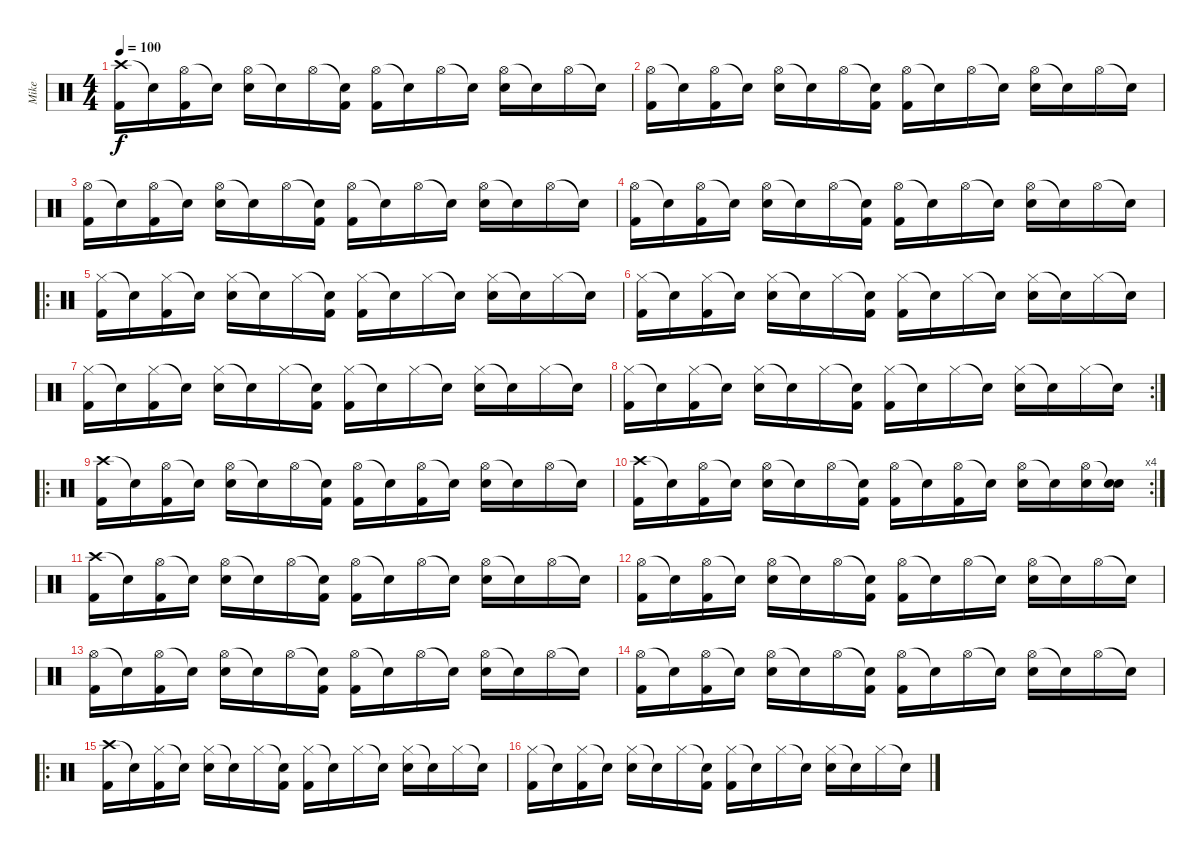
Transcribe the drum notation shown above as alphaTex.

\track ("Mike" "Mike") {instrument percussion}
\staff {score}
\articulation defaults
\ts (4 4)
\tempo 100
\clef neutral
\ks c
("Crash high (hit)" "Kick (hit) 2").16{dy f} "Snare (hit)"{t}.16 ("Hi-Hat (open)" "Kick (hit) 2").16 "Snare (hit)"{t}.16 ("Hi-Hat (open)" "Electric Snare (hit)").16 "Snare (hit)"{t}.16 "Hi-Hat (open)".16 ("Snare (hit)"{t} "Kick (hit) 2").16 ("Hi-Hat (open)" "Kick (hit) 2").16 "Snare (hit)"{t}.16 "Hi-Hat (open)".16 "Snare (hit)"{t}.16 ("Hi-Hat (open)" "Electric Snare (hit)").16 "Snare (hit)"{t}.16 "Hi-Hat (open)".16 "Snare (hit)"{t}.16 |
("Hi-Hat (open)" "Kick (hit) 2").16 "Snare (hit)"{t}.16 ("Hi-Hat (open)" "Kick (hit) 2").16 "Snare (hit)"{t}.16 ("Hi-Hat (open)" "Electric Snare (hit)").16 "Snare (hit)"{t}.16 "Hi-Hat (open)".16 ("Snare (hit)"{t} "Kick (hit) 2").16 ("Hi-Hat (open)" "Kick (hit) 2").16 "Snare (hit)"{t}.16 "Hi-Hat (open)".16 "Snare (hit)"{t}.16 ("Hi-Hat (open)" "Electric Snare (hit)").16 "Snare (hit)"{t}.16 "Hi-Hat (open)".16 "Snare (hit)"{t}.16 |
("Hi-Hat (open)" "Kick (hit) 2").16 "Snare (hit)"{t}.16 ("Hi-Hat (open)" "Kick (hit) 2").16 "Snare (hit)"{t}.16 ("Hi-Hat (open)" "Electric Snare (hit)").16 "Snare (hit)"{t}.16 "Hi-Hat (open)".16 ("Snare (hit)"{t} "Kick (hit) 2").16 ("Hi-Hat (open)" "Kick (hit) 2").16 "Snare (hit)"{t}.16 "Hi-Hat (open)".16 "Snare (hit)"{t}.16 ("Hi-Hat (open)" "Electric Snare (hit)").16 "Snare (hit)"{t}.16 "Hi-Hat (open)".16 "Snare (hit)"{t}.16 |
("Hi-Hat (open)" "Kick (hit) 2").16 "Snare (hit)"{t}.16 ("Hi-Hat (open)" "Kick (hit) 2").16 "Snare (hit)"{t}.16 ("Hi-Hat (open)" "Electric Snare (hit)").16 "Snare (hit)"{t}.16 "Hi-Hat (open)".16 ("Snare (hit)"{t} "Kick (hit) 2").16 ("Hi-Hat (open)" "Kick (hit) 2").16 "Snare (hit)"{t}.16 "Hi-Hat (open)".16 "Snare (hit)"{t}.16 ("Hi-Hat (open)" "Electric Snare (hit)").16 "Snare (hit)"{t}.16 "Hi-Hat (open)".16 "Snare (hit)"{t}.16 |
\ro
("Hi-Hat (closed)" "Kick (hit) 2").16 "Snare (hit)"{t}.16 ("Hi-Hat (closed)" "Kick (hit) 2").16 "Snare (hit)"{t}.16 ("Hi-Hat (closed)" "Electric Snare (hit)").16 "Snare (hit)"{t}.16 "Hi-Hat (closed)".16 ("Snare (hit)"{t} "Kick (hit) 2").16 ("Hi-Hat (closed)" "Kick (hit) 2").16 "Snare (hit)"{t}.16 "Hi-Hat (closed)".16 "Snare (hit)"{t}.16 ("Hi-Hat (closed)" "Electric Snare (hit)").16 "Snare (hit)"{t}.16 "Hi-Hat (closed)".16 "Snare (hit)"{t}.16 |
("Hi-Hat (closed)" "Kick (hit) 2").16 "Snare (hit)"{t}.16 ("Hi-Hat (closed)" "Kick (hit) 2").16 "Snare (hit)"{t}.16 ("Hi-Hat (closed)" "Electric Snare (hit)").16 "Snare (hit)"{t}.16 "Hi-Hat (closed)".16 ("Snare (hit)"{t} "Kick (hit) 2").16 ("Hi-Hat (closed)" "Kick (hit) 2").16 "Snare (hit)"{t}.16 "Hi-Hat (closed)".16 "Snare (hit)"{t}.16 ("Hi-Hat (closed)" "Electric Snare (hit)").16 "Snare (hit)"{t}.16 "Hi-Hat (closed)".16 "Snare (hit)"{t}.16 |
("Hi-Hat (closed)" "Kick (hit) 2").16 "Snare (hit)"{t}.16 ("Hi-Hat (closed)" "Kick (hit) 2").16 "Snare (hit)"{t}.16 ("Hi-Hat (closed)" "Electric Snare (hit)").16 "Snare (hit)"{t}.16 "Hi-Hat (closed)".16 ("Snare (hit)"{t} "Kick (hit) 2").16 ("Hi-Hat (closed)" "Kick (hit) 2").16 "Snare (hit)"{t}.16 "Hi-Hat (closed)".16 "Snare (hit)"{t}.16 ("Hi-Hat (closed)" "Electric Snare (hit)").16 "Snare (hit)"{t}.16 "Hi-Hat (closed)".16 "Snare (hit)"{t}.16 |
\rc 2
("Hi-Hat (closed)" "Kick (hit) 2").16 "Snare (hit)"{t}.16 ("Hi-Hat (closed)" "Kick (hit) 2").16 "Snare (hit)"{t}.16 ("Hi-Hat (closed)" "Electric Snare (hit)").16 "Snare (hit)"{t}.16 "Hi-Hat (closed)".16 ("Snare (hit)"{t} "Kick (hit) 2").16 ("Hi-Hat (closed)" "Kick (hit) 2").16 "Snare (hit)"{t}.16 "Hi-Hat (closed)".16 "Snare (hit)"{t}.16 ("Hi-Hat (closed)" "Electric Snare (hit)").16 "Snare (hit)"{t}.16 "Hi-Hat (closed)".16 "Snare (hit)"{t}.16 |
\ro
("Crash high (hit)" "Kick (hit) 2").16 "Snare (hit)"{t}.16 ("Hi-Hat (open)" "Kick (hit) 2").16 "Snare (hit)"{t}.16 ("Hi-Hat (open)" "Electric Snare (hit)").16 "Snare (hit)"{t}.16 "Hi-Hat (open)".16 ("Snare (hit)"{t} "Kick (hit) 2").16 ("Hi-Hat (open)" "Kick (hit) 2").16 "Snare (hit)"{t}.16 ("Hi-Hat (open)" "Kick (hit) 2").16 "Snare (hit)"{t}.16 ("Hi-Hat (open)" "Electric Snare (hit)").16 "Snare (hit)"{t}.16 "Hi-Hat (open)".16 "Snare (hit)"{t}.16 |
\rc 4
("Crash high (hit)" "Kick (hit) 2").16 "Snare (hit)"{t}.16 ("Hi-Hat (open)" "Kick (hit) 2").16 "Snare (hit)"{t}.16 ("Hi-Hat (open)" "Electric Snare (hit)").16 "Snare (hit)"{t}.16 "Hi-Hat (open)".16 ("Snare (hit)"{t} "Kick (hit) 2").16 ("Hi-Hat (open)" "Kick (hit) 2").16 "Snare (hit)"{t}.16 ("Hi-Hat (open)" "Kick (hit) 2").16 "Snare (hit)"{t}.16 ("Hi-Hat (open)" "Electric Snare (hit)").16 "Snare (hit)"{t}.16 ("Hi-Hat (open)" "Electric Snare (hit)").16 ("Snare (hit)"{t} "Electric Snare (hit)").16 |
("Crash high (hit)" "Kick (hit) 2").16 "Snare (hit)"{t}.16 ("Hi-Hat (open)" "Kick (hit) 2").16 "Snare (hit)"{t}.16 ("Hi-Hat (open)" "Electric Snare (hit)").16 "Snare (hit)"{t}.16 "Hi-Hat (open)".16 ("Snare (hit)"{t} "Kick (hit) 2").16 ("Hi-Hat (open)" "Kick (hit) 2").16 "Snare (hit)"{t}.16 "Hi-Hat (open)".16 "Snare (hit)"{t}.16 ("Hi-Hat (open)" "Electric Snare (hit)").16 "Snare (hit)"{t}.16 "Hi-Hat (open)".16 "Snare (hit)"{t}.16 |
("Hi-Hat (open)" "Kick (hit) 2").16 "Snare (hit)"{t}.16 ("Hi-Hat (open)" "Kick (hit) 2").16 "Snare (hit)"{t}.16 ("Hi-Hat (open)" "Electric Snare (hit)").16 "Snare (hit)"{t}.16 "Hi-Hat (open)".16 ("Snare (hit)"{t} "Kick (hit) 2").16 ("Hi-Hat (open)" "Kick (hit) 2").16 "Snare (hit)"{t}.16 "Hi-Hat (open)".16 "Snare (hit)"{t}.16 ("Hi-Hat (open)" "Electric Snare (hit)").16 "Snare (hit)"{t}.16 "Hi-Hat (open)".16 "Snare (hit)"{t}.16 |
("Hi-Hat (open)" "Kick (hit) 2").16 "Snare (hit)"{t}.16 ("Hi-Hat (open)" "Kick (hit) 2").16 "Snare (hit)"{t}.16 ("Hi-Hat (open)" "Electric Snare (hit)").16 "Snare (hit)"{t}.16 "Hi-Hat (open)".16 ("Snare (hit)"{t} "Kick (hit) 2").16 ("Hi-Hat (open)" "Kick (hit) 2").16 "Snare (hit)"{t}.16 "Hi-Hat (open)".16 "Snare (hit)"{t}.16 ("Hi-Hat (open)" "Electric Snare (hit)").16 "Snare (hit)"{t}.16 "Hi-Hat (open)".16 "Snare (hit)"{t}.16 |
("Hi-Hat (open)" "Kick (hit) 2").16 "Snare (hit)"{t}.16 ("Hi-Hat (open)" "Kick (hit) 2").16 "Snare (hit)"{t}.16 ("Hi-Hat (open)" "Electric Snare (hit)").16 "Snare (hit)"{t}.16 "Hi-Hat (open)".16 ("Snare (hit)"{t} "Kick (hit) 2").16 ("Hi-Hat (open)" "Kick (hit) 2").16 "Snare (hit)"{t}.16 "Hi-Hat (open)".16 "Snare (hit)"{t}.16 ("Hi-Hat (open)" "Electric Snare (hit)").16 "Snare (hit)"{t}.16 "Hi-Hat (open)".16 "Snare (hit)"{t}.16 |
\ro
("Crash high (hit)" "Kick (hit) 2").16 "Snare (hit)"{t}.16 ("Hi-Hat (closed)" "Kick (hit) 2").16 "Snare (hit)"{t}.16 ("Hi-Hat (closed)" "Electric Snare (hit)").16 "Snare (hit)"{t}.16 "Hi-Hat (closed)".16 ("Snare (hit)"{t} "Kick (hit) 2").16 ("Hi-Hat (closed)" "Kick (hit) 2").16 "Snare (hit)"{t}.16 "Hi-Hat (closed)".16 "Snare (hit)"{t}.16 ("Hi-Hat (closed)" "Electric Snare (hit)").16 "Snare (hit)"{t}.16 "Hi-Hat (closed)".16 "Snare (hit)"{t}.16 |
("Hi-Hat (closed)" "Kick (hit) 2").16 "Snare (hit)"{t}.16 ("Hi-Hat (closed)" "Kick (hit) 2").16 "Snare (hit)"{t}.16 ("Hi-Hat (closed)" "Electric Snare (hit)").16 "Snare (hit)"{t}.16 "Hi-Hat (closed)".16 ("Snare (hit)"{t} "Kick (hit) 2").16 ("Hi-Hat (closed)" "Kick (hit) 2").16 "Snare (hit)"{t}.16 "Hi-Hat (closed)".16 "Snare (hit)"{t}.16 ("Hi-Hat (closed)" "Electric Snare (hit)").16 "Snare (hit)"{t}.16 "Hi-Hat (closed)".16 "Snare (hit)"{t}.16
